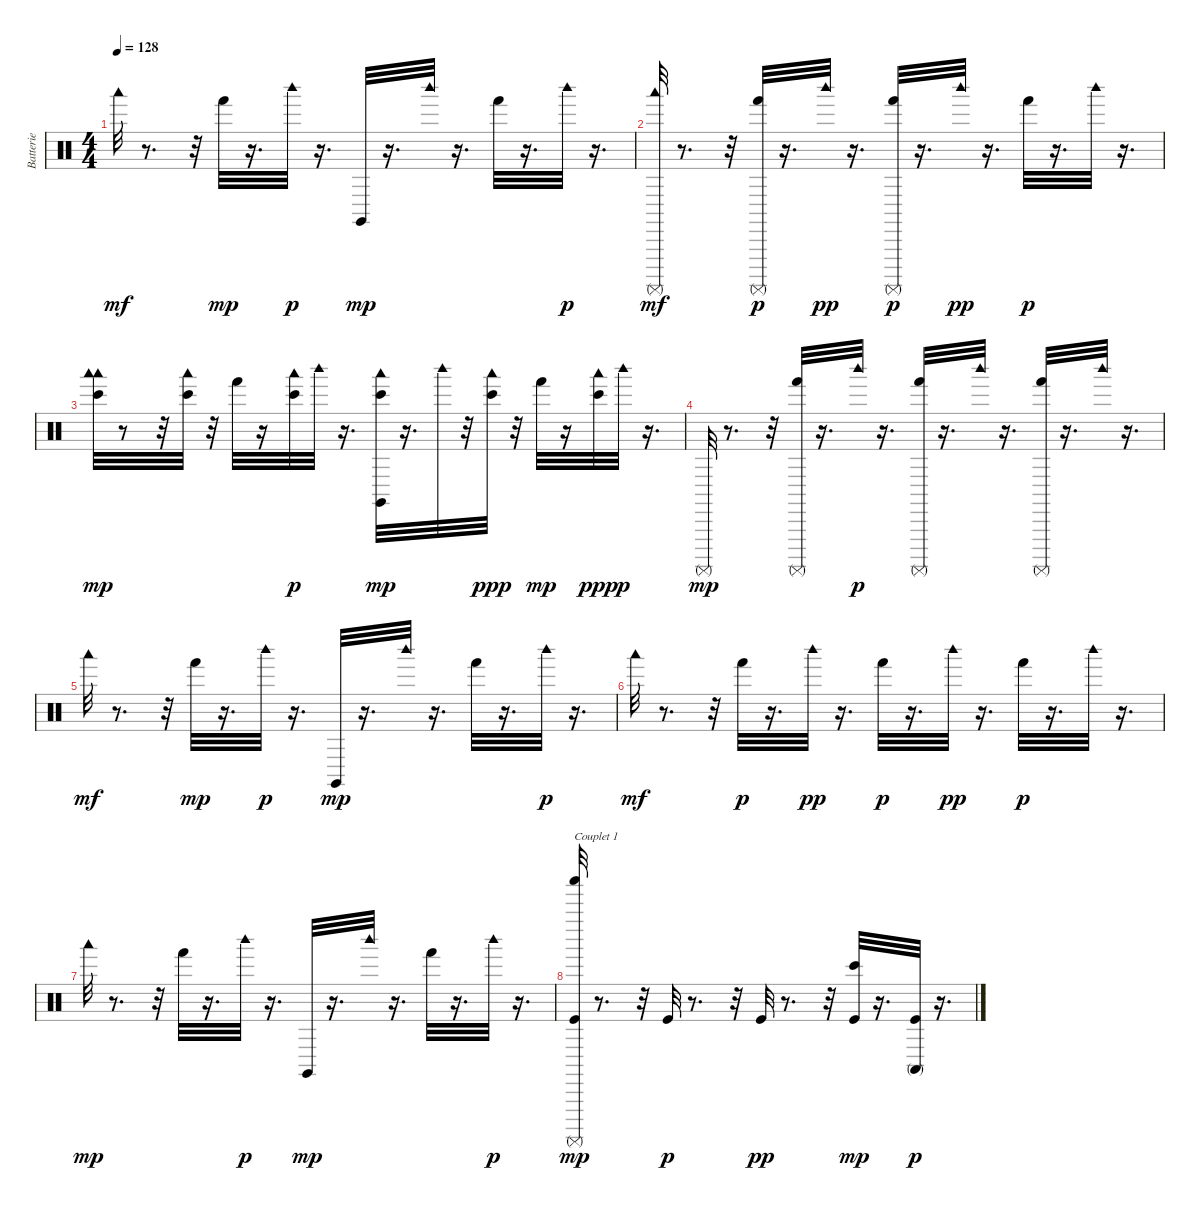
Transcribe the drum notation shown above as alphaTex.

\track ("Batterie" "Batterie") {instrument percussion}
\staff {score}
\articulation defaults
\ts (4 4)
\tempo 128
\clef neutral
\ks c "Woodblock low (hit)".32{dy mf}
r.8{d} r.32 "Hand (hit)".32{dy mp} r.16{d} "Woodblock high (hit)".32{dy p} r.16{d} "Claves (hit)".32{dy mp} r.16{d} "Woodblock high (hit)".32 r.16{d} "Hand (hit)".32 r.16{d} "Woodblock high (hit)".32{dy p} r.16{d} |
("Surdo (mute)" "Woodblock low (hit)").32{dy mf} r.8{d} r.32 ("Surdo (mute)" "Hand (hit)").32{dy p} r.16{d} "Woodblock high (hit)".32{dy pp} r.16{d} ("Surdo (mute)" "Hand (hit)").32{dy p} r.16{d} "Woodblock high (hit)".32{dy pp} r.16{d} "Hand (hit)".32{dy p} r.16{d} "Woodblock high (hit)".32 r.16{d} |
("Woodblock low (hit)" "Bongo High (hit)" "Woodblock low (hit)").32{dy mp} r.8 r.32 ("Woodblock low (hit)" "Bongo High (hit)").32 r.32 "Hand (hit)".32 r.16 ("Woodblock low (hit)" "Bongo High (hit)").32{dy p} "Woodblock high (hit)".32 r.16{d} ("Bongo High (hit)" "Woodblock low (hit)" "Claves (hit)").32{dy mp} r.16{d} "Woodblock high (hit)".32 r.32 ("Woodblock low (hit)" "Bongo High (hit)").32{dy ppp} r.32 "Hand (hit)".32{dy mp} r.16 ("Woodblock low (hit)" "Bongo High (hit)").32{dy ppp} "Woodblock high (hit)".32{dy p} r.16{d} |
"Surdo (mute)".32{dy mp} r.8{d} r.32 ("Hand (hit)" "Surdo (mute)").32 r.16{d} "Woodblock high (hit)".32{dy p} r.16{d} ("Hand (hit)" "Surdo (mute)").32 r.16{d} "Woodblock high (hit)".32 r.16{d} ("Hand (hit)" "Surdo (mute)").32 r.16{d} "Woodblock high (hit)".32 r.16{d} |
"Woodblock low (hit)".32{dy mf} r.8{d} r.32 "Hand (hit)".32{dy mp} r.16{d} "Woodblock high (hit)".32{dy p} r.16{d} "Claves (hit)".32{dy mp} r.16{d} "Woodblock high (hit)".32 r.16{d} "Hand (hit)".32 r.16{d} "Woodblock high (hit)".32{dy p} r.16{d} |
"Woodblock low (hit)".32{dy mf} r.8{d} r.32 "Hand (hit)".32{dy p} r.16{d} "Woodblock high (hit)".32{dy pp} r.16{d} "Hand (hit)".32{dy p} r.16{d} "Woodblock high (hit)".32{dy pp} r.16{d} "Hand (hit)".32{dy p} r.16{d} "Woodblock high (hit)".32 r.16{d} |
"Woodblock low (hit)".32{dy mp} r.8{d} r.32 "Hand (hit)".32 r.16{d} "Woodblock high (hit)".32{dy p} r.16{d} "Claves (hit)".32{dy mp} r.16{d} "Woodblock high (hit)".32 r.16{d} "Hand (hit)".32 r.16{d} "Woodblock high (hit)".32{dy p} r.16{d} |
("Kick (hit)" "Surdo (mute)" "Shaker (hit)").32{txt "Couplet 1" dy mp} r.8{d} r.32 "Kick (hit)".32{dy p} r.8{d} r.32 "Kick (hit)".32{dy pp} r.8{d} r.32 ("Kick (hit)" "Bongo High (hit)").32{dy mp} r.16{d} ("Conga high (mute)" "Kick (hit)").32{dy p} r.16{d}
